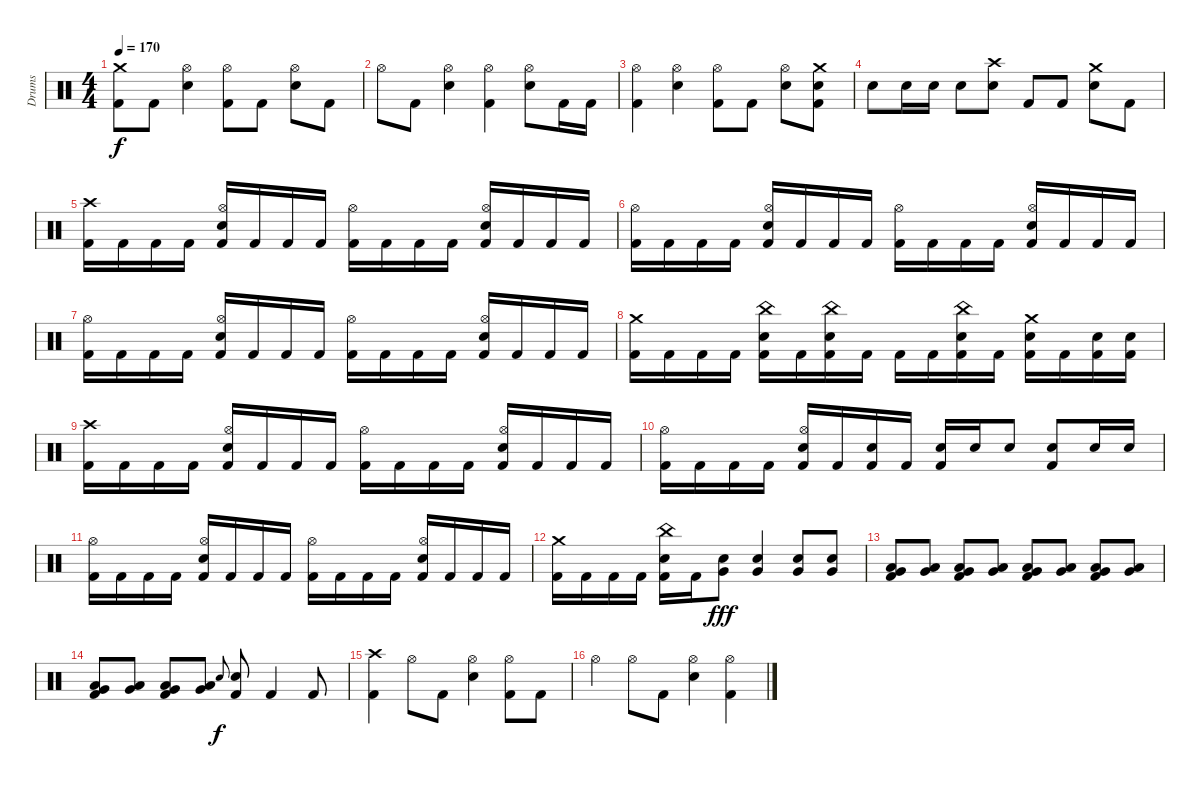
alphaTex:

\track ("Drums" "Drums") {instrument percussion}
\staff {score}
\articulation defaults
\ts (4 4)
\tempo 170
\clef neutral
\ks c
("Crash medium (hit)"{t} "Kick (hit) 2"{t}).8{dy f} "Kick (hit) 2".8 ("Hi-Hat (open)" "Electric Snare (hit)").4 ("Hi-Hat (open)" "Kick (hit) 2").8 "Kick (hit) 2".8 ("Hi-Hat (open)" "Electric Snare (hit)").8 "Kick (hit) 2".8 |
"Hi-Hat (open)".8 "Kick (hit) 2".8 ("Hi-Hat (open)" "Electric Snare (hit)").4 ("Hi-Hat (open)" "Kick (hit) 2").4 ("Hi-Hat (open)" "Electric Snare (hit)").8 "Kick (hit) 2".16 "Kick (hit) 2".16 |
("Hi-Hat (open)" "Kick (hit) 2").4 ("Hi-Hat (open)" "Electric Snare (hit)").4 ("Hi-Hat (open)" "Kick (hit) 2").8 "Kick (hit) 2".8 ("Hi-Hat (open)" "Electric Snare (hit)").8 ("Crash medium (hit)" "Electric Snare (hit)" "Kick (hit) 2").8 |
"Electric Snare (hit)".8 "Electric Snare (hit)".16 "Electric Snare (hit)".16 "Electric Snare (hit)".8 ("Crash high (hit)" "Electric Snare (hit)").8 "Kick (hit) 2".8 "Kick (hit) 2".8 ("Crash medium (hit)" "Electric Snare (hit)").8 "Kick (hit) 2".8 |
("Crash high (hit)" "Kick (hit) 2").16 "Kick (hit) 2".16 "Kick (hit) 2".16 "Kick (hit) 2".16 ("Hi-Hat (open)" "Electric Snare (hit)" "Kick (hit) 2").16 "Kick (hit) 2".16 "Kick (hit) 2".16 "Kick (hit) 2".16 ("Hi-Hat (open)" "Kick (hit) 2").16 "Kick (hit) 2".16 "Kick (hit) 2".16 "Kick (hit) 2".16 ("Hi-Hat (open)" "Electric Snare (hit)" "Kick (hit) 2").16 "Kick (hit) 2".16 "Kick (hit) 2".16 "Kick (hit) 2".16 |
("Hi-Hat (open)" "Kick (hit) 2").16 "Kick (hit) 2".16 "Kick (hit) 2".16 "Kick (hit) 2".16 ("Hi-Hat (open)" "Electric Snare (hit)" "Kick (hit) 2").16 "Kick (hit) 2".16 "Kick (hit) 2".16 "Kick (hit) 2".16 ("Hi-Hat (open)" "Kick (hit) 2").16 "Kick (hit) 2".16 "Kick (hit) 2".16 "Kick (hit) 2".16 ("Hi-Hat (open)" "Electric Snare (hit)" "Kick (hit) 2").16 "Kick (hit) 2".16 "Kick (hit) 2".16 "Kick (hit) 2".16 |
("Hi-Hat (open)" "Kick (hit) 2").16 "Kick (hit) 2".16 "Kick (hit) 2".16 "Kick (hit) 2".16 ("Hi-Hat (open)" "Electric Snare (hit)" "Kick (hit) 2").16 "Kick (hit) 2".16 "Kick (hit) 2".16 "Kick (hit) 2".16 ("Hi-Hat (open)" "Kick (hit) 2").16 "Kick (hit) 2".16 "Kick (hit) 2".16 "Kick (hit) 2".16 ("Hi-Hat (open)" "Electric Snare (hit)" "Kick (hit) 2").16 "Kick (hit) 2".16 "Kick (hit) 2".16 "Kick (hit) 2".16 |
("Crash medium (hit)" "Kick (hit) 2").16 "Kick (hit) 2".16 "Kick (hit) 2".16 "Kick (hit) 2".16 ("China (hit)" "Electric Snare (hit)" "Kick (hit) 2").16 "Kick (hit) 2".16 ("China (hit)" "Electric Snare (hit)" "Kick (hit) 2").16 "Kick (hit) 2".16 "Kick (hit) 2".16 "Kick (hit) 2".16 ("China (hit)" "Electric Snare (hit)" "Kick (hit) 2").16 "Kick (hit) 2".16 ("Crash medium (hit)" "Electric Snare (hit)" "Kick (hit) 2").16 "Kick (hit) 2".16 ("Electric Snare (hit)" "Kick (hit) 2").16 ("Electric Snare (hit)" "Kick (hit) 2").16 |
("Crash high (hit)" "Kick (hit) 2").16 "Kick (hit) 2".16 "Kick (hit) 2".16 "Kick (hit) 2".16 ("Hi-Hat (open)" "Electric Snare (hit)" "Kick (hit) 2").16 "Kick (hit) 2".16 "Kick (hit) 2".16 "Kick (hit) 2".16 ("Hi-Hat (open)" "Kick (hit) 2").16 "Kick (hit) 2".16 "Kick (hit) 2".16 "Kick (hit) 2".16 ("Hi-Hat (open)" "Electric Snare (hit)" "Kick (hit) 2").16 "Kick (hit) 2".16 "Kick (hit) 2".16 "Kick (hit) 2".16 |
("Hi-Hat (open)" "Kick (hit) 2").16 "Kick (hit) 2".16 "Kick (hit) 2".16 "Kick (hit) 2".16 ("Hi-Hat (open)" "Electric Snare (hit)" "Kick (hit) 2").16 "Kick (hit) 2".16 ("Electric Snare (hit)" "Kick (hit) 2").16 "Kick (hit) 2".16 ("Electric Snare (hit)" "Kick (hit) 2").16 "Electric Snare (hit)".16 "Electric Snare (hit)".8 ("Electric Snare (hit)" "Kick (hit) 2").8 "Electric Snare (hit)".16 "Electric Snare (hit)".16 |
("Hi-Hat (open)" "Kick (hit) 2").16 "Kick (hit) 2".16 "Kick (hit) 2".16 "Kick (hit) 2".16 ("Hi-Hat (open)" "Electric Snare (hit)" "Kick (hit) 2").16 "Kick (hit) 2".16 "Kick (hit) 2".16 "Kick (hit) 2".16 ("Hi-Hat (open)" "Kick (hit) 2").16 "Kick (hit) 2".16 "Kick (hit) 2".16 "Kick (hit) 2".16 ("Hi-Hat (open)" "Electric Snare (hit)" "Kick (hit) 2").16 "Kick (hit) 2".16 "Kick (hit) 2".16 "Kick (hit) 2".16 |
("Crash medium (hit)" "Kick (hit) 2").16 "Kick (hit) 2".16 "Kick (hit) 2".16 "Kick (hit) 2".16 ("China (hit)" "Electric Snare (hit)" "Kick (hit) 2").16 "Kick (hit) 2".16 ("Electric Snare (hit)" "Very Low Tom (hit)").8{dy fff} ("Electric Snare (hit)" "Very Low Tom (hit)").4 ("Electric Snare (hit)" "Very Low Tom (hit)").8 ("Electric Snare (hit)" "Very Low Tom (hit)").8 |
("Low Tom (hit)" "Very Low Tom (hit)" "Kick (hit) 2").8 ("Low Tom (hit)" "Very Low Tom (hit)").8 ("Low Tom (hit)" "Very Low Tom (hit)" "Kick (hit) 2").8 ("Low Tom (hit)" "Very Low Tom (hit)").8 ("Low Tom (hit)" "Very Low Tom (hit)" "Kick (hit) 2").8 ("Low Tom (hit)" "Very Low Tom (hit)").8 ("Low Tom (hit)" "Very Low Tom (hit)" "Kick (hit) 2").8 ("Low Tom (hit)" "Very Low Tom (hit)").8 |
("Low Tom (hit)" "Very Low Tom (hit)" "Kick (hit) 2").8 ("Low Tom (hit)" "Very Low Tom (hit)").8 ("Low Tom (hit)" "Very Low Tom (hit)" "Kick (hit) 2").8 ("Low Tom (hit)" "Very Low Tom (hit)").8 "Electric Snare (hit)".8{gr onbeat dy f} ("Electric Snare (hit)" "Kick (hit) 2").8 "Kick (hit) 2".4 "Kick (hit) 2".8 |
("Crash high (hit)" "Kick (hit) 2").4 "Hi-Hat (open)".8 "Kick (hit) 2".8 ("Hi-Hat (open)" "Electric Snare (hit)").4 ("Hi-Hat (open)" "Kick (hit) 2").8 "Kick (hit) 2".8 |
"Hi-Hat (open)".4 "Hi-Hat (open)".8 "Kick (hit) 2".8 ("Hi-Hat (open)" "Electric Snare (hit)").4 ("Hi-Hat (open)" "Kick (hit) 2").4
